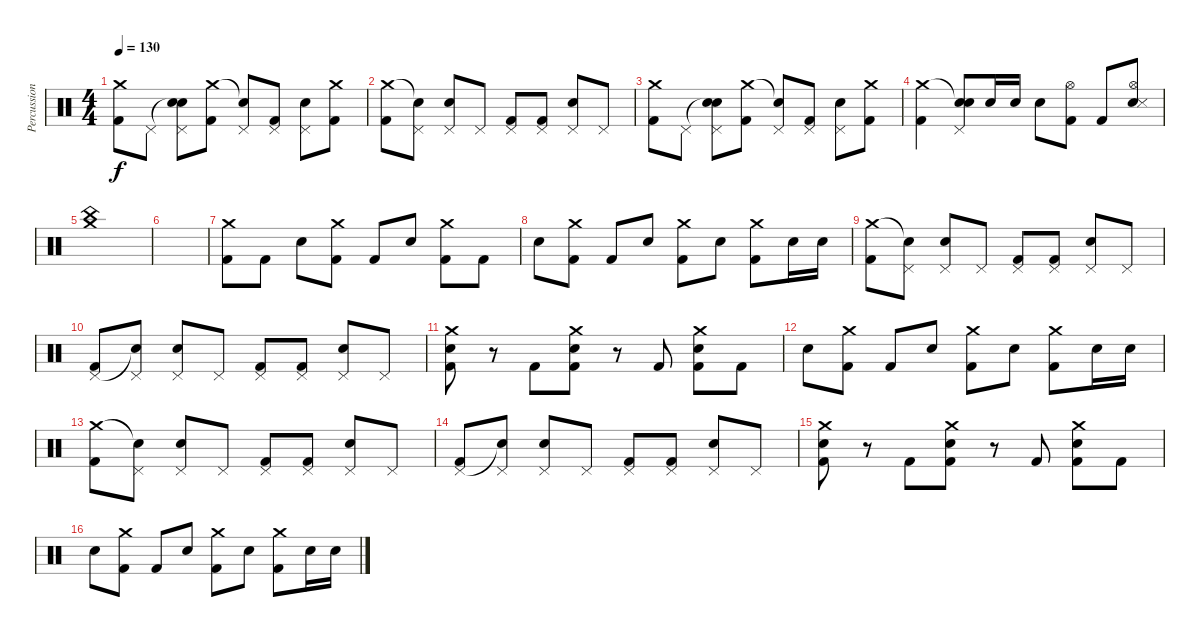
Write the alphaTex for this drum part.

\track ("Percussion" "Percussion") {instrument percussion}
\staff {score}
\articulation defaults
\ts (4 4)
\tempo 130
\clef neutral
\ks c
("Crash medium (hit)" "Kick (hit) 2").8{dy f} "Pedal Hi-Hat (hit)".8 ("Snare (hit)"{t} "Pedal Hi-Hat (hit)" "Snare (hit) 2").8 ("Crash medium (hit)" "Kick (hit) 2").8 ("Snare (hit)"{t} "Pedal Hi-Hat (hit)").8 ("Pedal Hi-Hat (hit)" "Kick (hit) 2").8 ("Pedal Hi-Hat (hit)" "Snare (hit) 2").8 ("Crash medium (hit)" "Kick (hit) 2").8 |
("Crash medium (hit)" "Kick (hit) 2").8 ("Snare (hit)"{t} "Pedal Hi-Hat (hit)").8 ("Pedal Hi-Hat (hit)" "Snare (hit) 2").8 "Pedal Hi-Hat (hit)".8 ("Pedal Hi-Hat (hit)" "Kick (hit) 2").8 ("Pedal Hi-Hat (hit)" "Kick (hit) 2").8 ("Pedal Hi-Hat (hit)" "Snare (hit) 2").8 "Pedal Hi-Hat (hit)".8 |
("Crash medium (hit)" "Kick (hit) 2").8 "Pedal Hi-Hat (hit)".8 ("Snare (hit)"{t} "Pedal Hi-Hat (hit)" "Snare (hit) 2").8 ("Crash medium (hit)" "Kick (hit) 2").8 ("Snare (hit)"{t} "Pedal Hi-Hat (hit)").8 ("Pedal Hi-Hat (hit)" "Kick (hit) 2").8 ("Pedal Hi-Hat (hit)" "Snare (hit) 2").8 ("Crash medium (hit)" "Kick (hit) 2").8 |
("Crash medium (hit)" "Kick (hit) 2").4 ("Snare (hit)"{t} "Pedal Hi-Hat (hit)" "Snare (hit) 2").8 "Snare (hit) 2".16 "Snare (hit) 2".16 "Snare (hit) 2".8 ("Hi-Hat (open)" "Kick (hit) 2").8 "Kick (hit) 2".8 ("Hi-Hat (open)" "Snare (hit) 2" "Snare (side stick) 3").8 |
("Crash medium (hit)" "China (hit)").1 |
|
("Crash medium (hit)" "Kick (hit) 2").8 "Kick (hit) 2".8 "Snare (hit) 2".8 ("Crash medium (hit)" "Kick (hit) 2").8 "Kick (hit) 2".8 "Snare (hit) 2".8 ("Crash medium (hit)" "Kick (hit) 2").8 "Kick (hit) 2".8 |
"Snare (hit) 2".8 ("Crash medium (hit)" "Kick (hit) 2").8 "Kick (hit) 2".8 "Snare (hit) 2".8 ("Crash medium (hit)" "Kick (hit) 2").8 "Snare (hit) 2".8 ("Crash medium (hit)" "Kick (hit) 2").8 "Snare (hit) 2".16 "Snare (hit) 2".16 |
("Crash medium (hit)" "Kick (hit) 2").8 ("Snare (hit)"{t} "Pedal Hi-Hat (hit)").8 ("Pedal Hi-Hat (hit)" "Snare (hit) 2").8 "Pedal Hi-Hat (hit)".8 ("Pedal Hi-Hat (hit)" "Kick (hit) 2").8 ("Pedal Hi-Hat (hit)" "Kick (hit) 2").8 ("Pedal Hi-Hat (hit)" "Snare (hit) 2").8 "Pedal Hi-Hat (hit)".8 |
("Pedal Hi-Hat (hit)" "Kick (hit) 2").8 ("Snare (hit)"{t} "Pedal Hi-Hat (hit)").8 ("Pedal Hi-Hat (hit)" "Snare (hit) 2").8 "Pedal Hi-Hat (hit)".8 ("Pedal Hi-Hat (hit)" "Kick (hit) 2").8 ("Pedal Hi-Hat (hit)" "Kick (hit) 2").8 ("Pedal Hi-Hat (hit)" "Snare (hit) 2").8 "Pedal Hi-Hat (hit)".8 |
("Crash medium (hit)" "Snare (hit) 2" "Kick (hit) 2").8 r.8 "Kick (hit) 2".8 ("Crash medium (hit)" "Snare (hit) 2" "Kick (hit) 2").8 r.8 "Kick (hit) 2".8 ("Crash medium (hit)" "Snare (hit) 2" "Kick (hit) 2").8 "Kick (hit) 2".8 |
"Snare (hit) 2".8 ("Crash medium (hit)" "Kick (hit) 2").8 "Kick (hit) 2".8 "Snare (hit) 2".8 ("Crash medium (hit)" "Kick (hit) 2").8 "Snare (hit) 2".8 ("Crash medium (hit)" "Kick (hit) 2").8 "Snare (hit) 2".16 "Snare (hit) 2".16 |
("Crash medium (hit)" "Kick (hit) 2").8 ("Snare (hit)"{t} "Pedal Hi-Hat (hit)").8 ("Pedal Hi-Hat (hit)" "Snare (hit) 2").8 "Pedal Hi-Hat (hit)".8 ("Pedal Hi-Hat (hit)" "Kick (hit) 2").8 ("Pedal Hi-Hat (hit)" "Kick (hit) 2").8 ("Pedal Hi-Hat (hit)" "Snare (hit) 2").8 "Pedal Hi-Hat (hit)".8 |
("Pedal Hi-Hat (hit)" "Kick (hit) 2").8 ("Snare (hit)"{t} "Pedal Hi-Hat (hit)").8 ("Pedal Hi-Hat (hit)" "Snare (hit) 2").8 "Pedal Hi-Hat (hit)".8 ("Pedal Hi-Hat (hit)" "Kick (hit) 2").8 ("Pedal Hi-Hat (hit)" "Kick (hit) 2").8 ("Pedal Hi-Hat (hit)" "Snare (hit) 2").8 "Pedal Hi-Hat (hit)".8 |
("Crash medium (hit)" "Snare (hit) 2" "Kick (hit) 2").8 r.8 "Kick (hit) 2".8 ("Crash medium (hit)" "Snare (hit) 2" "Kick (hit) 2").8 r.8 "Kick (hit) 2".8 ("Crash medium (hit)" "Snare (hit) 2" "Kick (hit) 2").8 "Kick (hit) 2".8 |
"Snare (hit) 2".8 ("Crash medium (hit)" "Kick (hit) 2").8 "Kick (hit) 2".8 "Snare (hit) 2".8 ("Crash medium (hit)" "Kick (hit) 2").8 "Snare (hit) 2".8 ("Crash medium (hit)" "Kick (hit) 2").8 "Snare (hit) 2".16 "Snare (hit) 2".16
